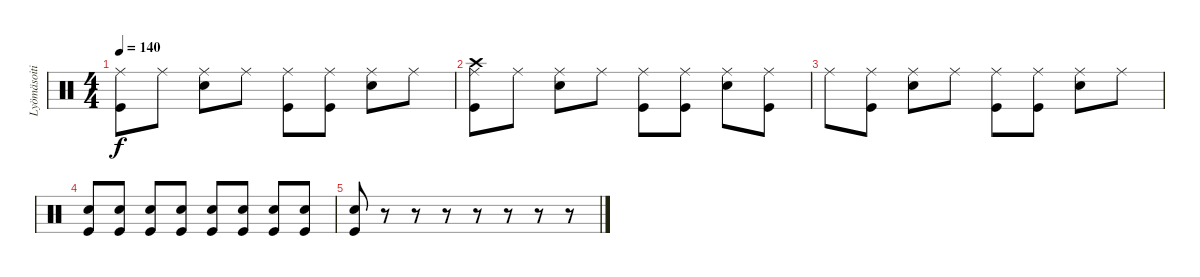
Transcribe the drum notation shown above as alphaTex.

\track ("Lyömäsoitin" "Lyömäsoiti") {instrument percussion}
\staff {score}
\articulation defaults
\ts (4 4)
\tempo 140
\clef neutral
\ks c
("Ride (middle)" "Kick (hit)").8{dy f} "Ride (middle)".8 ("Ride (middle)" "Snare (hit) 2").8 "Ride (middle)".8 ("Ride (middle)" "Kick (hit)").8 ("Ride (middle)" "Kick (hit)").8 ("Ride (middle)" "Snare (hit) 2").8 "Ride (middle)".8 |
("Crash high (hit)" "Ride (middle)" "Kick (hit)").8 "Ride (middle)".8 ("Ride (middle)" "Snare (hit) 2").8 "Ride (middle)".8 ("Ride (middle)" "Kick (hit)").8 ("Ride (middle)" "Kick (hit)").8 ("Ride (middle)" "Snare (hit) 2").8 ("Ride (middle)" "Kick (hit)").8 |
"Ride (middle)".8 ("Ride (middle)" "Kick (hit)").8 ("Ride (middle)" "Snare (hit) 2").8 "Ride (middle)".8 ("Ride (middle)" "Kick (hit)").8 ("Ride (middle)" "Kick (hit)").8 ("Ride (middle)" "Snare (hit) 2").8 "Ride (middle)".8 |
("Snare (hit) 2" "Kick (hit)").8 ("Snare (hit) 2" "Kick (hit)").8 ("Snare (hit) 2" "Kick (hit)").8 ("Snare (hit) 2" "Kick (hit)").8 ("Snare (hit) 2" "Kick (hit)").8 ("Snare (hit) 2" "Kick (hit)").8 ("Snare (hit) 2" "Kick (hit)").8 ("Snare (hit) 2" "Kick (hit)").8 |
("Snare (hit) 2" "Kick (hit)").8 r.8 r.8 r.8 r.8 r.8 r.8 r.8
